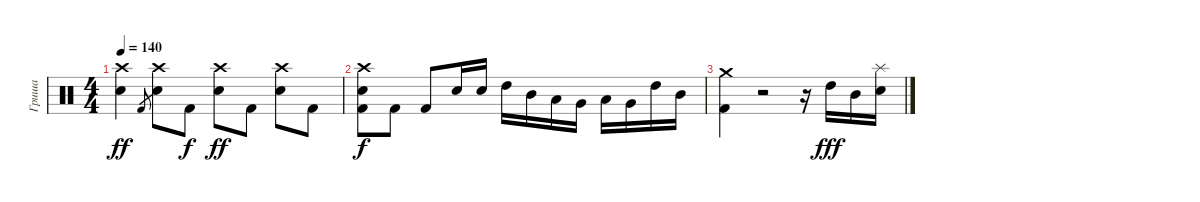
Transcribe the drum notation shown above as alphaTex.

\track ("Гриша" "Гриша") {instrument percussion}
\staff {score}
\articulation defaults
\ts (4 4)
\tempo 140
\clef neutral
\ks c
("Crash high (hit)" "Electric Snare (hit)").4{dy ff} "Kick (hit) 2".8{gr} ("Crash high (hit)" "Electric Snare (hit)").8 "Kick (hit) 2".8{dy f} ("Crash high (hit)" "Electric Snare (hit)").8{dy ff} "Kick (hit) 2".8 ("Crash high (hit)" "Electric Snare (hit)").8 "Kick (hit) 2".8 |
("Crash high (hit)" "Electric Snare (hit)" "Kick (hit) 2").8{dy f} "Kick (hit) 2".8 "Kick (hit) 2".8 "Electric Snare (hit)".16 "Electric Snare (hit)".16 "High Tom (hit)".16 "Mid Tom (hit)".16 "Low Tom (hit)".16 "Very Low Tom (hit)".16 "Low Floor Tom (hit)".16 "Very Low Tom (hit)".16 "High Tom (hit)".16 "Mid Tom (hit)".16 |
("Crash medium (hit)" "Kick (hit) 2").4 r.2 r.16 "High Tom (hit)".16{dy fff} "Mid Tom (hit)".16 ("Electric Snare (hit)" "Splash (hit)").16
